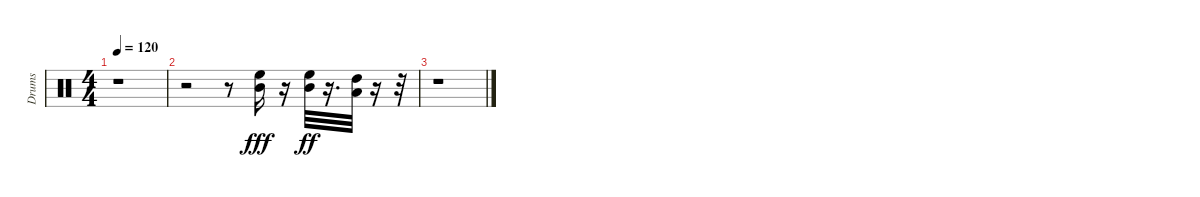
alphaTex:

\track ("Drums" "Drums") {instrument percussion}
\staff {score}
\articulation defaults
\ts (4 4)
\tempo 120
\clef neutral
\ks c
r.1{dy fff} |
r.2 r.8 ("Mid Tom (hit)" "High Floor Tom (hit)").16 r.16 ("Mid Tom (hit)" "High Floor Tom (hit)").32{dy ff} r.16{d} ("Low Tom (hit)" "High Tom (hit)").32 r.16 r.32 |
r.1
